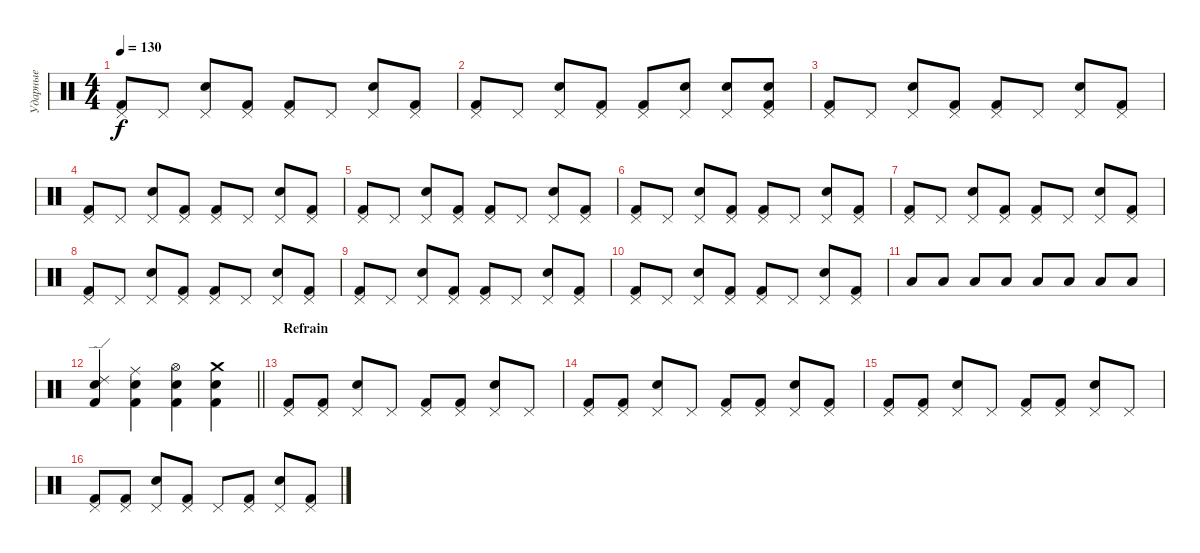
\track ("Ударные" "Ударные") {instrument percussion}
\staff {score}
\articulation defaults
\ts (4 4)
\tempo 130
\clef neutral
\ks c
("Pedal Hi-Hat (hit)" "Kick (hit) 2").8{dy f} "Pedal Hi-Hat (hit)".8 ("Pedal Hi-Hat (hit)" "Electric Snare (hit)").8 ("Pedal Hi-Hat (hit)" "Kick (hit) 2").8 ("Pedal Hi-Hat (hit)" "Kick (hit) 2").8 "Pedal Hi-Hat (hit)".8 ("Pedal Hi-Hat (hit)" "Electric Snare (hit)").8 ("Pedal Hi-Hat (hit)" "Kick (hit) 2").8 |
("Pedal Hi-Hat (hit)" "Kick (hit) 2").8 "Pedal Hi-Hat (hit)".8 ("Pedal Hi-Hat (hit)" "Electric Snare (hit)").8 ("Pedal Hi-Hat (hit)" "Kick (hit) 2").8 ("Pedal Hi-Hat (hit)" "Kick (hit) 2").8 ("Pedal Hi-Hat (hit)" "Electric Snare (hit)").8 ("Pedal Hi-Hat (hit)" "Electric Snare (hit)").8 ("Pedal Hi-Hat (hit)" "Electric Snare (hit)" "Kick (hit) 2").8 |
("Pedal Hi-Hat (hit)" "Kick (hit) 2").8 "Pedal Hi-Hat (hit)".8 ("Pedal Hi-Hat (hit)" "Electric Snare (hit)").8 ("Pedal Hi-Hat (hit)" "Kick (hit) 2").8 ("Pedal Hi-Hat (hit)" "Kick (hit) 2").8 "Pedal Hi-Hat (hit)".8 ("Pedal Hi-Hat (hit)" "Electric Snare (hit)").8 ("Pedal Hi-Hat (hit)" "Kick (hit) 2").8 |
("Pedal Hi-Hat (hit)" "Kick (hit) 2").8 "Pedal Hi-Hat (hit)".8 ("Pedal Hi-Hat (hit)" "Electric Snare (hit)").8 ("Pedal Hi-Hat (hit)" "Kick (hit) 2").8 ("Pedal Hi-Hat (hit)" "Kick (hit) 2").8 "Pedal Hi-Hat (hit)".8 ("Pedal Hi-Hat (hit)" "Electric Snare (hit)").8 ("Pedal Hi-Hat (hit)" "Kick (hit) 2").8 |
("Pedal Hi-Hat (hit)" "Kick (hit) 2").8 "Pedal Hi-Hat (hit)".8 ("Pedal Hi-Hat (hit)" "Electric Snare (hit)").8 ("Pedal Hi-Hat (hit)" "Kick (hit) 2").8 ("Pedal Hi-Hat (hit)" "Kick (hit) 2").8 "Pedal Hi-Hat (hit)".8 ("Pedal Hi-Hat (hit)" "Electric Snare (hit)").8 ("Pedal Hi-Hat (hit)" "Kick (hit) 2").8 |
("Pedal Hi-Hat (hit)" "Kick (hit) 2").8 "Pedal Hi-Hat (hit)".8 ("Pedal Hi-Hat (hit)" "Electric Snare (hit)").8 ("Pedal Hi-Hat (hit)" "Kick (hit) 2").8 ("Pedal Hi-Hat (hit)" "Kick (hit) 2").8 "Pedal Hi-Hat (hit)".8 ("Pedal Hi-Hat (hit)" "Electric Snare (hit)").8 ("Pedal Hi-Hat (hit)" "Kick (hit) 2").8 |
("Pedal Hi-Hat (hit)" "Kick (hit) 2").8 "Pedal Hi-Hat (hit)".8 ("Pedal Hi-Hat (hit)" "Electric Snare (hit)").8 ("Pedal Hi-Hat (hit)" "Kick (hit) 2").8 ("Pedal Hi-Hat (hit)" "Kick (hit) 2").8 "Pedal Hi-Hat (hit)".8 ("Pedal Hi-Hat (hit)" "Electric Snare (hit)").8 ("Pedal Hi-Hat (hit)" "Kick (hit) 2").8 |
("Pedal Hi-Hat (hit)" "Kick (hit) 2").8 "Pedal Hi-Hat (hit)".8 ("Pedal Hi-Hat (hit)" "Electric Snare (hit)").8 ("Pedal Hi-Hat (hit)" "Kick (hit) 2").8 ("Pedal Hi-Hat (hit)" "Kick (hit) 2").8 "Pedal Hi-Hat (hit)".8 ("Pedal Hi-Hat (hit)" "Electric Snare (hit)").8 ("Pedal Hi-Hat (hit)" "Kick (hit) 2").8 |
("Pedal Hi-Hat (hit)" "Kick (hit) 2").8 "Pedal Hi-Hat (hit)".8 ("Pedal Hi-Hat (hit)" "Electric Snare (hit)").8 ("Pedal Hi-Hat (hit)" "Kick (hit) 2").8 ("Pedal Hi-Hat (hit)" "Kick (hit) 2").8 "Pedal Hi-Hat (hit)".8 ("Pedal Hi-Hat (hit)" "Electric Snare (hit)").8 ("Pedal Hi-Hat (hit)" "Kick (hit) 2").8 |
("Pedal Hi-Hat (hit)" "Kick (hit) 2").8 "Pedal Hi-Hat (hit)".8 ("Pedal Hi-Hat (hit)" "Electric Snare (hit)").8 ("Pedal Hi-Hat (hit)" "Kick (hit) 2").8 ("Pedal Hi-Hat (hit)" "Kick (hit) 2").8 "Pedal Hi-Hat (hit)".8 ("Pedal Hi-Hat (hit)" "Electric Snare (hit)").8 ("Pedal Hi-Hat (hit)" "Kick (hit) 2").8 |
"Low Tom (hit)".8 "Low Tom (hit)".8 "Low Tom (hit)".8 "Low Tom (hit)".8 "Low Tom (hit)".8 "Low Tom (hit)".8 "Low Tom (hit)".8 "Low Tom (hit)".8 |
\barLineRight lightlight
("Ride (edge) 2" "Electric Snare (hit)" "Kick (hit) 2").4 ("Ride (middle)" "Electric Snare (hit)" "Kick (hit) 2").4 ("Hi-Hat (open)" "Electric Snare (hit)" "Kick (hit) 2").4 ("Crash medium (hit)" "Electric Snare (hit)" "Kick (hit) 2").4 |
\section ("" "Refrain")
("Pedal Hi-Hat (hit)" "Kick (hit) 2").8 ("Pedal Hi-Hat (hit)" "Kick (hit) 2").8 ("Pedal Hi-Hat (hit)" "Electric Snare (hit)").8 "Pedal Hi-Hat (hit)".8 ("Pedal Hi-Hat (hit)" "Kick (hit) 2").8 ("Pedal Hi-Hat (hit)" "Kick (hit) 2").8 ("Pedal Hi-Hat (hit)" "Electric Snare (hit)").8 "Pedal Hi-Hat (hit)".8 |
("Pedal Hi-Hat (hit)" "Kick (hit) 2").8 ("Pedal Hi-Hat (hit)" "Kick (hit) 2").8 ("Pedal Hi-Hat (hit)" "Electric Snare (hit)").8 "Pedal Hi-Hat (hit)".8 ("Pedal Hi-Hat (hit)" "Kick (hit) 2").8 ("Pedal Hi-Hat (hit)" "Kick (hit) 2").8 ("Pedal Hi-Hat (hit)" "Electric Snare (hit)").8 ("Pedal Hi-Hat (hit)" "Kick (hit) 2").8 |
("Pedal Hi-Hat (hit)" "Kick (hit) 2").8 ("Pedal Hi-Hat (hit)" "Kick (hit) 2").8 ("Pedal Hi-Hat (hit)" "Electric Snare (hit)").8 "Pedal Hi-Hat (hit)".8 ("Pedal Hi-Hat (hit)" "Kick (hit) 2").8 ("Pedal Hi-Hat (hit)" "Kick (hit) 2").8 ("Pedal Hi-Hat (hit)" "Electric Snare (hit)").8 "Pedal Hi-Hat (hit)".8 |
("Pedal Hi-Hat (hit)" "Kick (hit) 2").8 ("Pedal Hi-Hat (hit)" "Kick (hit) 2").8 ("Pedal Hi-Hat (hit)" "Electric Snare (hit)").8 ("Pedal Hi-Hat (hit)" "Kick (hit) 2").8 "Pedal Hi-Hat (hit)".8 ("Pedal Hi-Hat (hit)" "Kick (hit) 2").8 ("Pedal Hi-Hat (hit)" "Electric Snare (hit)").8 ("Pedal Hi-Hat (hit)" "Kick (hit) 2").8
